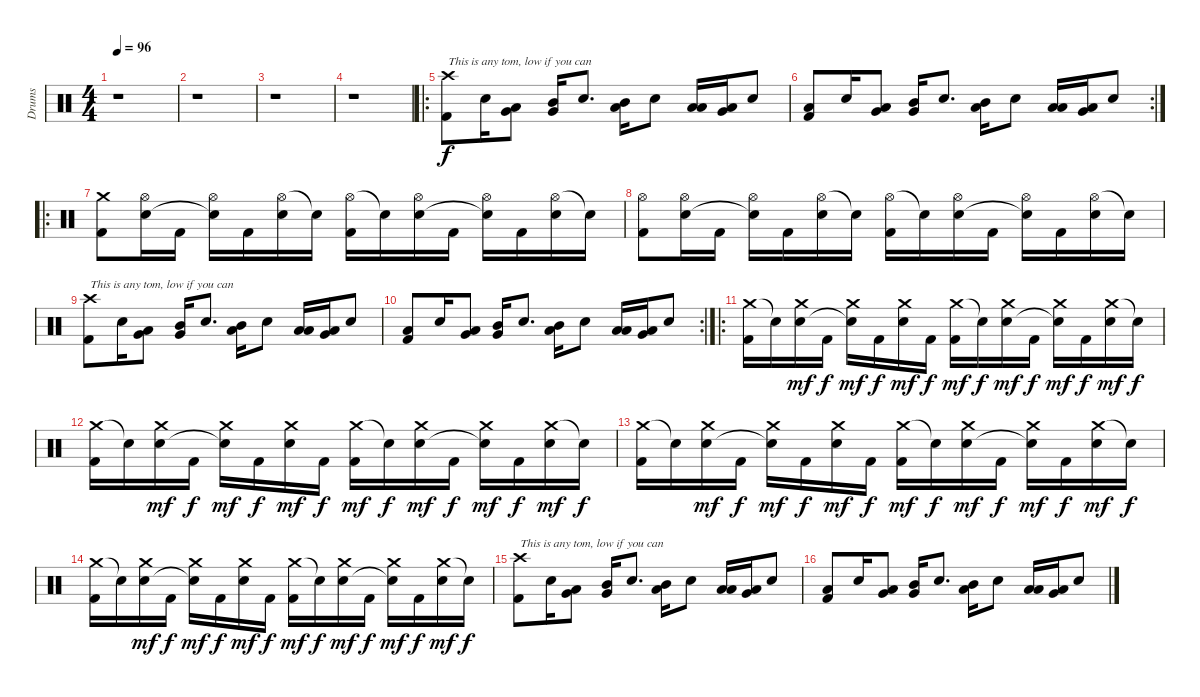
\track ("Drums" "Drums") {instrument percussion}
\staff {score}
\articulation defaults
\ts (4 4)
\tempo 96
\clef neutral
\ks c
r.1{dy f} |
r.1 |
r.1 |
r.1 |
\ro
("Crash high (hit)" "Kick (hit) 2").8{txt "This is any tom, low if you can"} "Electric Snare (hit)".16 ("Low Tom (hit)" "Very Low Tom (hit)").8 ("Very Low Tom (hit)" "Mid Tom (hit)").16 "Electric Snare (hit)".8{d} ("Low Tom (hit)" "Mid Tom (hit)").16 "Electric Snare (hit)".8 ("Low Tom (hit)" "Low Tom (hit)").16 ("Very Low Tom (hit)" "Low Tom (hit)").16 "Electric Snare (hit)".8 |
\rc 2
("Low Tom (hit)" "Kick (hit) 2").8 "Electric Snare (hit)".16 ("Low Tom (hit)" "Very Low Tom (hit)").8 ("Very Low Tom (hit)" "Mid Tom (hit)").16 "Electric Snare (hit)".8{d} ("Low Tom (hit)" "Mid Tom (hit)").16 "Electric Snare (hit)".8 ("Low Tom (hit)" "Low Tom (hit)").16 ("Low Tom (hit)" "Very Low Tom (hit)").16 "Electric Snare (hit)".8 |
\ro
("Crash medium (hit)" "Kick (hit) 2").8 ("Hi-Hat (open)" "Electric Snare (hit)").16 "Kick (hit) 2".16 ("Hi-Hat (open)" "Snare (hit)"{t}).16 "Kick (hit) 2".16 ("Hi-Hat (open)" "Electric Snare (hit)").16 "Snare (hit)"{t}.16 ("Hi-Hat (open)" "Kick (hit) 2").16 "Snare (hit)"{t}.16 ("Hi-Hat (open)" "Electric Snare (hit)").16 "Kick (hit) 2".16 ("Hi-Hat (open)" "Snare (hit)"{t}).16 "Kick (hit) 2".16 ("Hi-Hat (open)" "Electric Snare (hit)").16 "Snare (hit)"{t}.16 |
("Hi-Hat (open)" "Kick (hit) 2").8 ("Hi-Hat (open)" "Electric Snare (hit)").16 "Kick (hit) 2".16 ("Hi-Hat (open)" "Snare (hit)"{t}).16 "Kick (hit) 2".16 ("Hi-Hat (open)" "Electric Snare (hit)").16 "Snare (hit)"{t}.16 ("Hi-Hat (open)" "Kick (hit) 2").16 "Snare (hit)"{t}.16 ("Hi-Hat (open)" "Electric Snare (hit)").16 "Kick (hit) 2".16 ("Hi-Hat (open)" "Snare (hit)"{t}).16 "Kick (hit) 2".16 ("Hi-Hat (open)" "Electric Snare (hit)").16 "Snare (hit)"{t}.16 |
("Crash high (hit)" "Kick (hit) 2").8{txt "This is any tom, low if you can"} "Electric Snare (hit)".16 ("Low Tom (hit)" "Very Low Tom (hit)").8 ("Very Low Tom (hit)" "Mid Tom (hit)").16 "Electric Snare (hit)".8{d} ("Low Tom (hit)" "Mid Tom (hit)").16 "Electric Snare (hit)".8 ("Low Tom (hit)" "Low Tom (hit)").16 ("Very Low Tom (hit)" "Low Tom (hit)").16 "Electric Snare (hit)".8 |
\rc 2
("Low Tom (hit)" "Kick (hit) 2").8 "Electric Snare (hit)".16 ("Low Tom (hit)" "Very Low Tom (hit)").8 ("Very Low Tom (hit)" "Mid Tom (hit)").16 "Electric Snare (hit)".8{d} ("Low Tom (hit)" "Mid Tom (hit)").16 "Electric Snare (hit)".8 ("Low Tom (hit)" "Low Tom (hit)").16 ("Low Tom (hit)" "Very Low Tom (hit)").16 "Electric Snare (hit)".8 |
\ro
("Crash medium (hit)" "Kick (hit) 2").16 "Snare (hit)"{t}.16 ("Crash medium (hit)" "Electric Snare (hit)").16{dy mf} "Kick (hit) 2".16{dy f} ("Crash medium (hit)" "Snare (hit)"{t}).16{dy mf} "Kick (hit) 2".16{dy f} ("Crash medium (hit)" "Electric Snare (hit)").16{dy mf} "Kick (hit) 2".16{dy f} ("Crash medium (hit)" "Kick (hit) 2").16{dy mf} "Snare (hit)"{t}.16{dy f} ("Crash medium (hit)" "Electric Snare (hit)").16{dy mf} "Kick (hit) 2".16{dy f} ("Crash medium (hit)" "Snare (hit)"{t}).16{dy mf} "Kick (hit) 2".16{dy f} ("Crash medium (hit)" "Electric Snare (hit)").16{dy mf} "Snare (hit)"{t}.16{dy f} |
("Crash medium (hit)" "Kick (hit) 2").16 "Snare (hit)"{t}.16 ("Crash medium (hit)" "Electric Snare (hit)").16{dy mf} "Kick (hit) 2".16{dy f} ("Crash medium (hit)" "Snare (hit)"{t}).16{dy mf} "Kick (hit) 2".16{dy f} ("Crash medium (hit)" "Electric Snare (hit)").16{dy mf} "Kick (hit) 2".16{dy f} ("Crash medium (hit)" "Kick (hit) 2").16{dy mf} "Snare (hit)"{t}.16{dy f} ("Crash medium (hit)" "Electric Snare (hit)").16{dy mf} "Kick (hit) 2".16{dy f} ("Crash medium (hit)" "Snare (hit)"{t}).16{dy mf} "Kick (hit) 2".16{dy f} ("Crash medium (hit)" "Electric Snare (hit)").16{dy mf} "Snare (hit)"{t}.16{dy f} |
("Crash medium (hit)" "Kick (hit) 2").16 "Snare (hit)"{t}.16 ("Crash medium (hit)" "Electric Snare (hit)").16{dy mf} "Kick (hit) 2".16{dy f} ("Crash medium (hit)" "Snare (hit)"{t}).16{dy mf} "Kick (hit) 2".16{dy f} ("Crash medium (hit)" "Electric Snare (hit)").16{dy mf} "Kick (hit) 2".16{dy f} ("Crash medium (hit)" "Kick (hit) 2").16{dy mf} "Snare (hit)"{t}.16{dy f} ("Crash medium (hit)" "Electric Snare (hit)").16{dy mf} "Kick (hit) 2".16{dy f} ("Crash medium (hit)" "Snare (hit)"{t}).16{dy mf} "Kick (hit) 2".16{dy f} ("Crash medium (hit)" "Electric Snare (hit)").16{dy mf} "Snare (hit)"{t}.16{dy f} |
("Crash medium (hit)" "Kick (hit) 2").16 "Snare (hit)"{t}.16 ("Crash medium (hit)" "Electric Snare (hit)").16{dy mf} "Kick (hit) 2".16{dy f} ("Crash medium (hit)" "Snare (hit)"{t}).16{dy mf} "Kick (hit) 2".16{dy f} ("Crash medium (hit)" "Electric Snare (hit)").16{dy mf} "Kick (hit) 2".16{dy f} ("Crash medium (hit)" "Kick (hit) 2").16{dy mf} "Snare (hit)"{t}.16{dy f} ("Crash medium (hit)" "Electric Snare (hit)").16{dy mf} "Kick (hit) 2".16{dy f} ("Crash medium (hit)" "Snare (hit)"{t}).16{dy mf} "Kick (hit) 2".16{dy f} ("Crash medium (hit)" "Electric Snare (hit)").16{dy mf} "Snare (hit)"{t}.16{dy f} |
("Crash high (hit)" "Kick (hit) 2").8{txt "This is any tom, low if you can"} "Electric Snare (hit)".16 ("Low Tom (hit)" "Very Low Tom (hit)").8 ("Very Low Tom (hit)" "Mid Tom (hit)").16 "Electric Snare (hit)".8{d} ("Low Tom (hit)" "Mid Tom (hit)").16 "Electric Snare (hit)".8 ("Low Tom (hit)" "Low Tom (hit)").16 ("Very Low Tom (hit)" "Low Tom (hit)").16 "Electric Snare (hit)".8 |
("Low Tom (hit)" "Kick (hit) 2").8 "Electric Snare (hit)".16 ("Low Tom (hit)" "Very Low Tom (hit)").8 ("Very Low Tom (hit)" "Mid Tom (hit)").16 "Electric Snare (hit)".8{d} ("Low Tom (hit)" "Mid Tom (hit)").16 "Electric Snare (hit)".8 ("Low Tom (hit)" "Low Tom (hit)").16 ("Low Tom (hit)" "Very Low Tom (hit)").16 "Electric Snare (hit)".8
